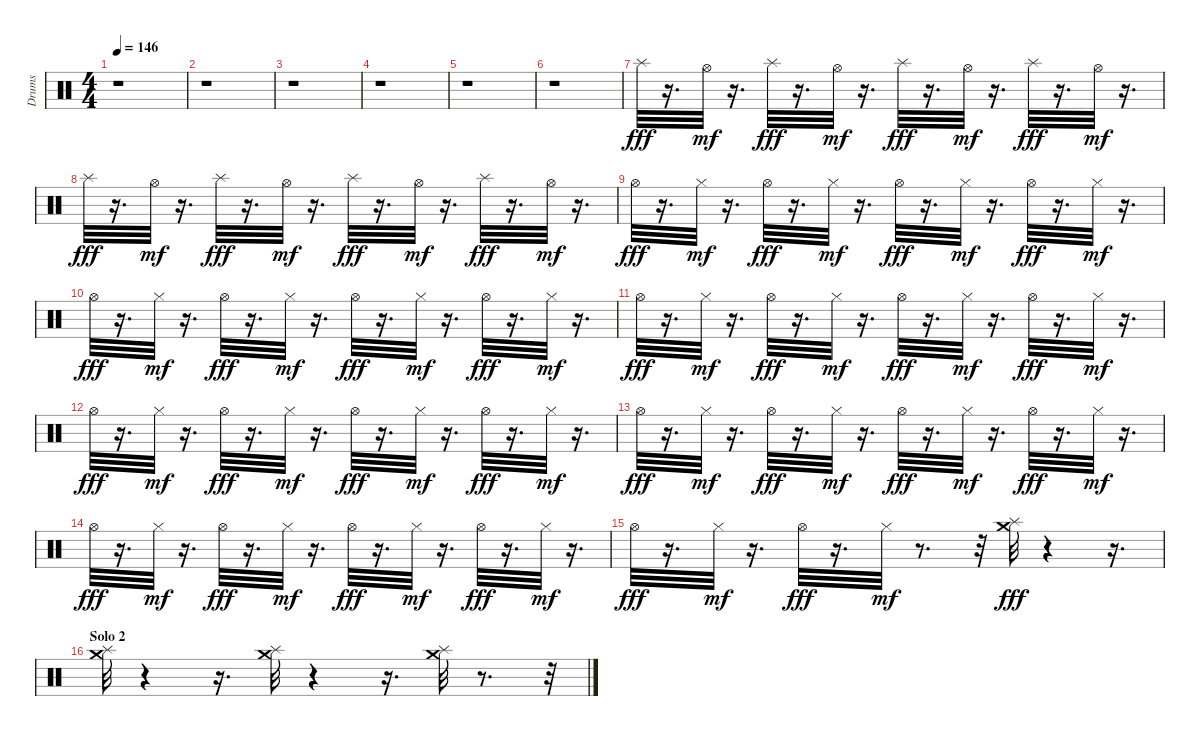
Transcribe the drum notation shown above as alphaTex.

\track ("Drums" "Drums") {instrument percussion}
\staff {score}
\articulation defaults
\ts (4 4)
\tempo 146
\clef neutral
\ks c
r.1{dy fff} |
r.1 |
r.1 |
r.1 |
r.1 |
r.1 |
"Splash (hit)".32 r.16{d} "Hi-Hat (open)".32{dy mf} r.16{d} "Splash (hit)".32{dy fff} r.16{d} "Hi-Hat (open)".32{dy mf} r.16{d} "Splash (hit)".32{dy fff} r.16{d} "Hi-Hat (open)".32{dy mf} r.16{d} "Splash (hit)".32{dy fff} r.16{d} "Hi-Hat (open)".32{dy mf} r.16{d} |
"Splash (hit)".32{dy fff} r.16{d} "Hi-Hat (open)".32{dy mf} r.16{d} "Splash (hit)".32{dy fff} r.16{d} "Hi-Hat (open)".32{dy mf} r.16{d} "Splash (hit)".32{dy fff} r.16{d} "Hi-Hat (open)".32{dy mf} r.16{d} "Splash (hit)".32{dy fff} r.16{d} "Hi-Hat (open)".32{dy mf} r.16{d} |
"Hi-Hat (open)".32{dy fff} r.16{d} "Hi-Hat (closed)".32{dy mf} r.16{d} "Hi-Hat (open)".32{dy fff} r.16{d} "Hi-Hat (closed)".32{dy mf} r.16{d} "Hi-Hat (open)".32{dy fff} r.16{d} "Hi-Hat (closed)".32{dy mf} r.16{d} "Hi-Hat (open)".32{dy fff} r.16{d} "Hi-Hat (closed)".32{dy mf} r.16{d} |
"Hi-Hat (open)".32{dy fff} r.16{d} "Hi-Hat (closed)".32{dy mf} r.16{d} "Hi-Hat (open)".32{dy fff} r.16{d} "Hi-Hat (closed)".32{dy mf} r.16{d} "Hi-Hat (open)".32{dy fff} r.16{d} "Hi-Hat (closed)".32{dy mf} r.16{d} "Hi-Hat (open)".32{dy fff} r.16{d} "Hi-Hat (closed)".32{dy mf} r.16{d} |
"Hi-Hat (open)".32{dy fff} r.16{d} "Hi-Hat (closed)".32{dy mf} r.16{d} "Hi-Hat (open)".32{dy fff} r.16{d} "Hi-Hat (closed)".32{dy mf} r.16{d} "Hi-Hat (open)".32{dy fff} r.16{d} "Hi-Hat (closed)".32{dy mf} r.16{d} "Hi-Hat (open)".32{dy fff} r.16{d} "Hi-Hat (closed)".32{dy mf} r.16{d} |
"Hi-Hat (open)".32{dy fff} r.16{d} "Hi-Hat (closed)".32{dy mf} r.16{d} "Hi-Hat (open)".32{dy fff} r.16{d} "Hi-Hat (closed)".32{dy mf} r.16{d} "Hi-Hat (open)".32{dy fff} r.16{d} "Hi-Hat (closed)".32{dy mf} r.16{d} "Hi-Hat (open)".32{dy fff} r.16{d} "Hi-Hat (closed)".32{dy mf} r.16{d} |
"Hi-Hat (open)".32{dy fff} r.16{d} "Hi-Hat (closed)".32{dy mf} r.16{d} "Hi-Hat (open)".32{dy fff} r.16{d} "Hi-Hat (closed)".32{dy mf} r.16{d} "Hi-Hat (open)".32{dy fff} r.16{d} "Hi-Hat (closed)".32{dy mf} r.16{d} "Hi-Hat (open)".32{dy fff} r.16{d} "Hi-Hat (closed)".32{dy mf} r.16{d} |
"Hi-Hat (open)".32{dy fff} r.16{d} "Hi-Hat (closed)".32{dy mf} r.16{d} "Hi-Hat (open)".32{dy fff} r.16{d} "Hi-Hat (closed)".32{dy mf} r.16{d} "Hi-Hat (open)".32{dy fff} r.16{d} "Hi-Hat (closed)".32{dy mf} r.16{d} "Hi-Hat (open)".32{dy fff} r.16{d} "Hi-Hat (closed)".32{dy mf} r.16{d} |
"Hi-Hat (open)".32{dy fff} r.16{d} "Hi-Hat (closed)".32{dy mf} r.16{d} "Hi-Hat (open)".32{dy fff} r.16{d} "Hi-Hat (closed)".32{dy mf} r.8{d} r.32 ("Crash medium (hit)" "Splash (hit)").32{dy fff} r.4 r.16{d} |
\section ("" "Solo 2")
("Crash medium (hit)" "Splash (hit)").32 r.4 r.16{d} ("Crash medium (hit)" "Splash (hit)").32 r.4 r.16{d} ("Crash medium (hit)" "Splash (hit)").32 r.8{d} r.32
